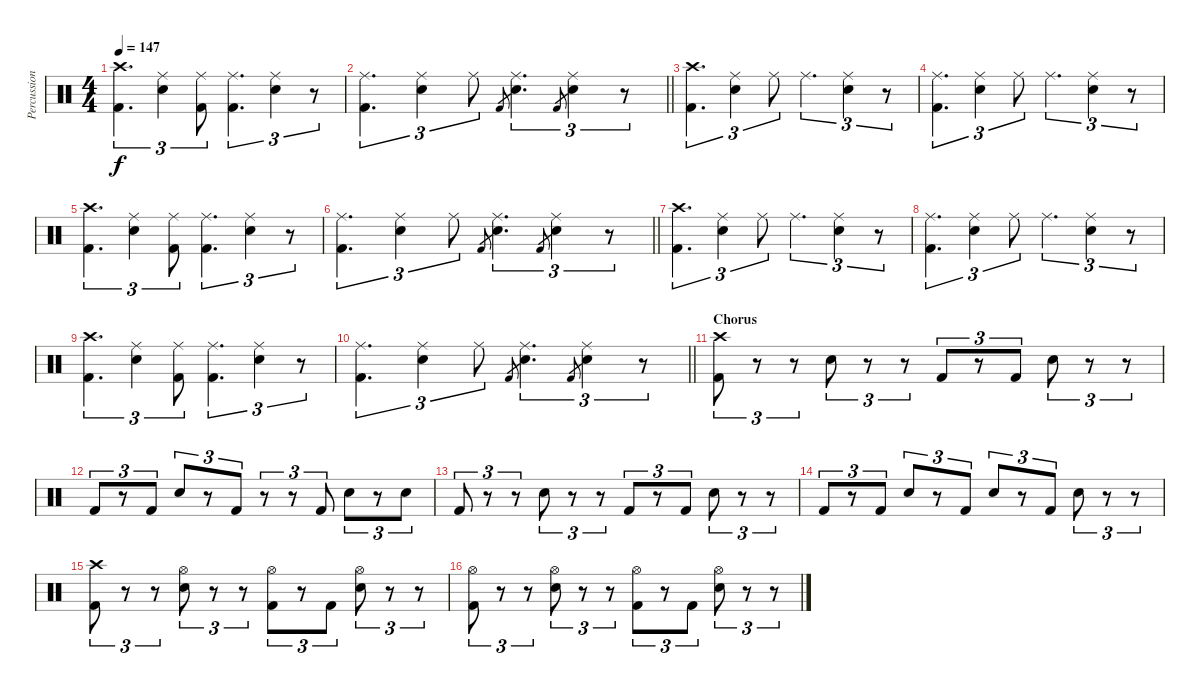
\track ("Percussion" "Percussion") {instrument percussion}
\staff {score}
\articulation defaults
\ts (4 4)
\tempo 147
\clef neutral
\ks c
("Crash high (hit)" "Kick (hit) 2").4{d tu (3 2) dy f} ("Ride (middle)" "Electric Snare (hit)").4{tu (3 2)} ("Ride (middle)" "Kick (hit) 2").8{tu (3 2)} ("Ride (middle)" "Kick (hit) 2").4{d tu (3 2)} ("Ride (middle)" "Electric Snare (hit)").4{tu (3 2)} r.8{tu (3 2)} |
\barLineRight lightlight
("Ride (middle)" "Kick (hit) 2").4{d tu (3 2)} ("Ride (middle)" "Electric Snare (hit)").4{tu (3 2)} "Ride (middle)".8{tu (3 2)} "Kick (hit) 2".8{gr} ("Ride (middle)" "Electric Snare (hit)").4{d tu (3 2)} "Kick (hit) 2".8{gr} ("Ride (middle)" "Electric Snare (hit)").4{tu (3 2)} r.8{tu (3 2)} |
("Crash high (hit)" "Kick (hit) 2").4{d tu (3 2)} ("Ride (middle)" "Electric Snare (hit)").4{tu (3 2)} "Ride (middle)".8{tu (3 2)} "Ride (middle)".4{d tu (3 2)} ("Ride (middle)" "Electric Snare (hit)").4{tu (3 2)} r.8{tu (3 2)} |
("Ride (middle)" "Kick (hit) 2").4{d tu (3 2)} ("Ride (middle)" "Electric Snare (hit)").4{tu (3 2)} "Ride (middle)".8{tu (3 2)} "Ride (middle)".4{d tu (3 2)} ("Ride (middle)" "Electric Snare (hit)").4{tu (3 2)} r.8{tu (3 2)} |
("Crash high (hit)" "Kick (hit) 2").4{d tu (3 2)} ("Ride (middle)" "Electric Snare (hit)").4{tu (3 2)} ("Ride (middle)" "Kick (hit) 2").8{tu (3 2)} ("Ride (middle)" "Kick (hit) 2").4{d tu (3 2)} ("Ride (middle)" "Electric Snare (hit)").4{tu (3 2)} r.8{tu (3 2)} |
\barLineRight lightlight
("Ride (middle)" "Kick (hit) 2").4{d tu (3 2)} ("Ride (middle)" "Electric Snare (hit)").4{tu (3 2)} "Ride (middle)".8{tu (3 2)} "Kick (hit) 2".8{gr} ("Ride (middle)" "Electric Snare (hit)").4{d tu (3 2)} "Kick (hit) 2".8{gr} ("Ride (middle)" "Electric Snare (hit)").4{tu (3 2)} r.8{tu (3 2)} |
("Crash high (hit)" "Kick (hit) 2").4{d tu (3 2)} ("Ride (middle)" "Electric Snare (hit)").4{tu (3 2)} "Ride (middle)".8{tu (3 2)} "Ride (middle)".4{d tu (3 2)} ("Ride (middle)" "Electric Snare (hit)").4{tu (3 2)} r.8{tu (3 2)} |
("Ride (middle)" "Kick (hit) 2").4{d tu (3 2)} ("Ride (middle)" "Electric Snare (hit)").4{tu (3 2)} "Ride (middle)".8{tu (3 2)} "Ride (middle)".4{d tu (3 2)} ("Ride (middle)" "Electric Snare (hit)").4{tu (3 2)} r.8{tu (3 2)} |
("Crash high (hit)" "Kick (hit) 2").4{d tu (3 2)} ("Ride (middle)" "Electric Snare (hit)").4{tu (3 2)} ("Ride (middle)" "Kick (hit) 2").8{tu (3 2)} ("Ride (middle)" "Kick (hit) 2").4{d tu (3 2)} ("Ride (middle)" "Electric Snare (hit)").4{tu (3 2)} r.8{tu (3 2)} |
\barLineRight lightlight
("Ride (middle)" "Kick (hit) 2").4{d tu (3 2)} ("Ride (middle)" "Electric Snare (hit)").4{tu (3 2)} "Ride (middle)".8{tu (3 2)} "Kick (hit) 2".8{gr} ("Ride (middle)" "Electric Snare (hit)").4{d tu (3 2)} "Kick (hit) 2".8{gr} ("Ride (middle)" "Electric Snare (hit)").4{tu (3 2)} r.8{tu (3 2)} |
\section ("" "Chorus")
("Crash high (hit)" "Kick (hit) 2").8{tu (3 2)} r.8{tu (3 2)} r.8{tu (3 2)} "Electric Snare (hit)".8{tu (3 2)} r.8{tu (3 2)} r.8{tu (3 2)} "Kick (hit) 2".8{tu (3 2)} r.8{tu (3 2)} "Kick (hit) 2".8{tu (3 2)} "Electric Snare (hit)".8{tu (3 2)} r.8{tu (3 2)} r.8{tu (3 2)} |
"Kick (hit) 2".8{tu (3 2)} r.8{tu (3 2)} "Kick (hit) 2".8{tu (3 2)} "Electric Snare (hit)".8{tu (3 2)} r.8{tu (3 2)} "Kick (hit) 2".8{tu (3 2)} r.8{tu (3 2)} r.8{tu (3 2)} "Kick (hit) 2".8{tu (3 2)} "Electric Snare (hit)".8{tu (3 2)} r.8{tu (3 2)} "Electric Snare (hit)".8{tu (3 2)} |
"Kick (hit) 2".8{tu (3 2)} r.8{tu (3 2)} r.8{tu (3 2)} "Electric Snare (hit)".8{tu (3 2)} r.8{tu (3 2)} r.8{tu (3 2)} "Kick (hit) 2".8{tu (3 2)} r.8{tu (3 2)} "Kick (hit) 2".8{tu (3 2)} "Electric Snare (hit)".8{tu (3 2)} r.8{tu (3 2)} r.8{tu (3 2)} |
"Kick (hit) 2".8{tu (3 2)} r.8{tu (3 2)} "Kick (hit) 2".8{tu (3 2)} "Electric Snare (hit)".8{tu (3 2)} r.8{tu (3 2)} "Kick (hit) 2".8{tu (3 2)} "Electric Snare (hit)".8{tu (3 2)} r.8{tu (3 2)} "Kick (hit) 2".8{tu (3 2)} "Electric Snare (hit)".8{tu (3 2)} r.8{tu (3 2)} r.8{tu (3 2)} |
("Crash high (hit)" "Kick (hit) 2").8{tu (3 2)} r.8{tu (3 2)} r.8{tu (3 2)} ("Hi-Hat (open)" "Electric Snare (hit)").8{tu (3 2)} r.8{tu (3 2)} r.8{tu (3 2)} ("Hi-Hat (open)" "Kick (hit) 2").8{tu (3 2)} r.8{tu (3 2)} "Kick (hit) 2".8{tu (3 2)} ("Hi-Hat (open)" "Electric Snare (hit)").8{tu (3 2)} r.8{tu (3 2)} r.8{tu (3 2)} |
("Hi-Hat (open)" "Kick (hit) 2").8{tu (3 2)} r.8{tu (3 2)} r.8{tu (3 2)} ("Hi-Hat (open)" "Electric Snare (hit)").8{tu (3 2)} r.8{tu (3 2)} r.8{tu (3 2)} ("Hi-Hat (open)" "Kick (hit) 2").8{tu (3 2)} r.8{tu (3 2)} "Kick (hit) 2".8{tu (3 2)} ("Hi-Hat (open)" "Electric Snare (hit)").8{tu (3 2)} r.8{tu (3 2)} r.8{tu (3 2)}
